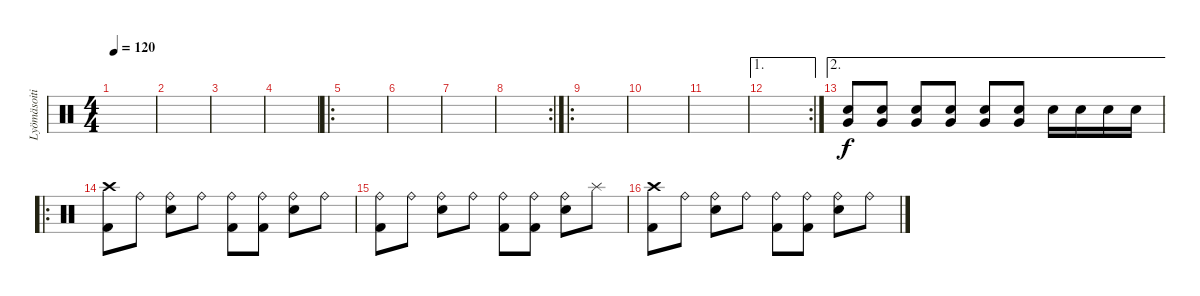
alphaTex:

\track ("Lyömäsoitin" "Lyömäsoiti") {instrument percussion}
\staff {score}
\articulation defaults
\ts (4 4)
\tempo 120
\clef neutral
\ks c
|
|
|
|
\ro
|
|
|
\rc 2
|
\ro
|
|
|
\ae 1
\rc 2
|
\ae 2
("Very Low Tom (hit)" "Snare (hit) 2").8 ("Very Low Tom (hit)" "Snare (hit) 2").8 ("Very Low Tom (hit)" "Snare (hit) 2").8 ("Very Low Tom (hit)" "Snare (hit) 2").8 ("Very Low Tom (hit)" "Snare (hit) 2").8 ("Very Low Tom (hit)" "Snare (hit) 2").8 "Snare (hit) 2".16 "Snare (hit) 2".16 "Snare (hit) 2".16 "Snare (hit) 2".16 |
\ro
("Crash high (hit)" "Kick (hit) 2").8 "Ride (bell)".8 ("Ride (bell)" "Snare (hit) 2").8 "Ride (bell)".8 ("Ride (bell)" "Kick (hit) 2").8 ("Ride (bell)" "Kick (hit) 2").8 ("Ride (bell)" "Snare (hit) 2").8 "Ride (bell)".8 |
("Ride (bell)" "Kick (hit) 2").8 "Ride (bell)".8 ("Ride (bell)" "Snare (hit) 2").8 "Ride (bell)".8 ("Ride (bell)" "Kick (hit) 2").8 ("Ride (bell)" "Kick (hit) 2").8 ("Ride (bell)" "Snare (hit) 2").8 "Splash (hit)".8 |
("Crash high (hit)" "Kick (hit) 2").8 "Ride (bell)".8 ("Ride (bell)" "Snare (hit) 2").8 "Ride (bell)".8 ("Ride (bell)" "Kick (hit) 2").8 ("Ride (bell)" "Kick (hit) 2").8 ("Ride (bell)" "Snare (hit) 2").8 "Ride (bell)".8
